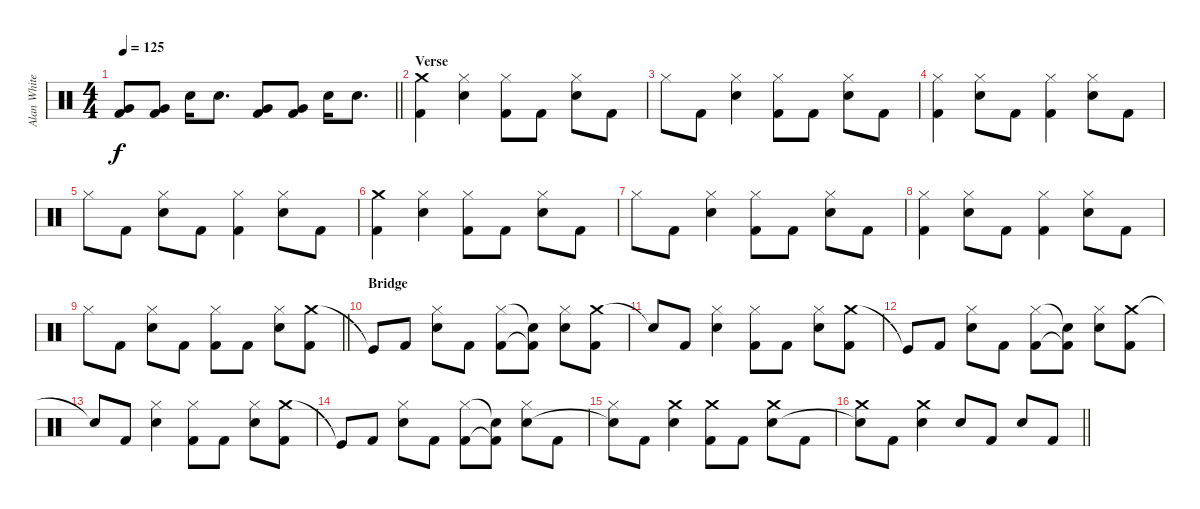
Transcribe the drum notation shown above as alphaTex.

\track ("Alan White" "Alan White") {instrument percussion}
\staff {score}
\articulation defaults
\ts (4 4)
\tempo 125
\clef neutral
\barLineRight lightlight
\ks c
("Very Low Tom (hit)" "Kick (hit) 2").8{dy f} ("Very Low Tom (hit)" "Kick (hit) 2").8 "Snare (hit) 2".16 "Snare (hit) 2".8{d} ("Very Low Tom (hit)" "Kick (hit) 2").8 ("Very Low Tom (hit)" "Kick (hit) 2").8 "Snare (hit) 2".16 "Snare (hit) 2".8{d} |
\section ("" "Verse")
("Crash medium (hit)" "Kick (hit) 2").4 ("Hi-Hat (closed)" "Snare (hit) 2").4 ("Hi-Hat (closed)" "Kick (hit) 2").8 "Kick (hit) 2".8 ("Hi-Hat (closed)" "Snare (hit) 2").8 "Kick (hit) 2".8 |
"Hi-Hat (closed)".8 "Kick (hit) 2".8 ("Hi-Hat (closed)" "Snare (hit) 2").4 ("Hi-Hat (closed)" "Kick (hit) 2").8 "Kick (hit) 2".8 ("Hi-Hat (closed)" "Snare (hit) 2").8 "Kick (hit) 2".8 |
("Hi-Hat (closed)" "Kick (hit) 2").4 ("Hi-Hat (closed)" "Snare (hit) 2").8 "Kick (hit) 2".8 ("Hi-Hat (closed)" "Kick (hit) 2").4 ("Hi-Hat (closed)" "Snare (hit) 2").8 "Kick (hit) 2".8 |
"Hi-Hat (closed)".8 "Kick (hit) 2".8 ("Hi-Hat (closed)" "Snare (hit) 2").8 "Kick (hit) 2".8 ("Hi-Hat (closed)" "Kick (hit) 2").4 ("Hi-Hat (closed)" "Snare (hit) 2").8 "Kick (hit) 2".8 |
("Crash medium (hit)" "Kick (hit) 2").4 ("Hi-Hat (closed)" "Snare (hit) 2").4 ("Hi-Hat (closed)" "Kick (hit) 2").8 "Kick (hit) 2".8 ("Hi-Hat (closed)" "Snare (hit) 2").8 "Kick (hit) 2".8 |
"Hi-Hat (closed)".8 "Kick (hit) 2".8 ("Hi-Hat (closed)" "Snare (hit) 2").4 ("Hi-Hat (closed)" "Kick (hit) 2").8 "Kick (hit) 2".8 ("Hi-Hat (closed)" "Snare (hit) 2").8 "Kick (hit) 2".8 |
("Hi-Hat (closed)" "Kick (hit) 2").4 ("Hi-Hat (closed)" "Snare (hit) 2").8 "Kick (hit) 2".8 ("Hi-Hat (closed)" "Kick (hit) 2").4 ("Hi-Hat (closed)" "Snare (hit) 2").8 "Kick (hit) 2".8 |
\barLineRight lightlight "Hi-Hat (closed)".8 "Kick (hit) 2".8
("Hi-Hat (closed)" "Snare (hit) 2").8 "Kick (hit) 2".8 ("Hi-Hat (closed)" "Kick (hit) 2").8 "Kick (hit) 2".8 ("Hi-Hat (closed)" "Snare (hit) 2").8 ("Crash medium (hit)" "Kick (hit) 2").8 |
\section ("" "Bridge")
"Kick (hit)"{t}.8 "Kick (hit) 2".8 ("Hi-Hat (closed)" "Snare (hit) 2").8 "Kick (hit) 2".8 ("Hi-Hat (closed)" "Kick (hit) 2").8 ("Snare (hit)"{t} "Kick (hit) 2"{t}).8 ("Hi-Hat (closed)" "Snare (hit) 2").8 ("Crash medium (hit)" "Kick (hit) 2").8 |
"Snare (hit)"{t}.8 "Kick (hit) 2".8 ("Hi-Hat (closed)" "Snare (hit) 2").4 ("Hi-Hat (closed)" "Kick (hit) 2").8 "Kick (hit) 2".8 ("Hi-Hat (closed)" "Snare (hit) 2").8 ("Crash medium (hit)" "Kick (hit) 2").8 |
"Kick (hit)"{t}.8 "Kick (hit) 2".8 ("Hi-Hat (closed)" "Snare (hit) 2").8 "Kick (hit) 2".8 ("Hi-Hat (closed)" "Kick (hit) 2").8 ("Snare (hit)"{t} "Kick (hit) 2"{t}).8 ("Hi-Hat (closed)" "Snare (hit) 2").8 ("Crash medium (hit)" "Kick (hit) 2").8 |
"Snare (hit)"{t}.8 "Kick (hit) 2".8 ("Hi-Hat (closed)" "Snare (hit) 2").4 ("Hi-Hat (closed)" "Kick (hit) 2").8 "Kick (hit) 2".8 ("Hi-Hat (closed)" "Snare (hit) 2").8 ("Crash medium (hit)" "Kick (hit) 2").8 |
"Kick (hit)"{t}.8 "Kick (hit) 2".8 ("Hi-Hat (closed)" "Snare (hit) 2").8 "Kick (hit) 2".8 ("Hi-Hat (closed)" "Kick (hit) 2").8 ("Snare (hit)"{t} "Kick (hit) 2"{t}).8 ("Hi-Hat (closed)" "Snare (hit) 2").8 "Kick (hit) 2".8 |
("Hi-Hat (closed)" "Snare (hit)"{t}).8 "Kick (hit) 2".8 ("Crash medium (hit)" "Snare (hit) 2").4 ("Crash medium (hit)" "Kick (hit) 2").8 "Kick (hit) 2".8 ("Crash medium (hit)" "Snare (hit) 2").8 "Kick (hit) 2".8 |
\barLineRight lightlight
("Crash medium (hit)" "Snare (hit)"{t}).8 "Kick (hit) 2".8 ("Crash medium (hit)" "Snare (hit) 2").4 "Snare (hit) 2".8 "Kick (hit) 2".8 "Snare (hit) 2".8 "Kick (hit) 2".8
